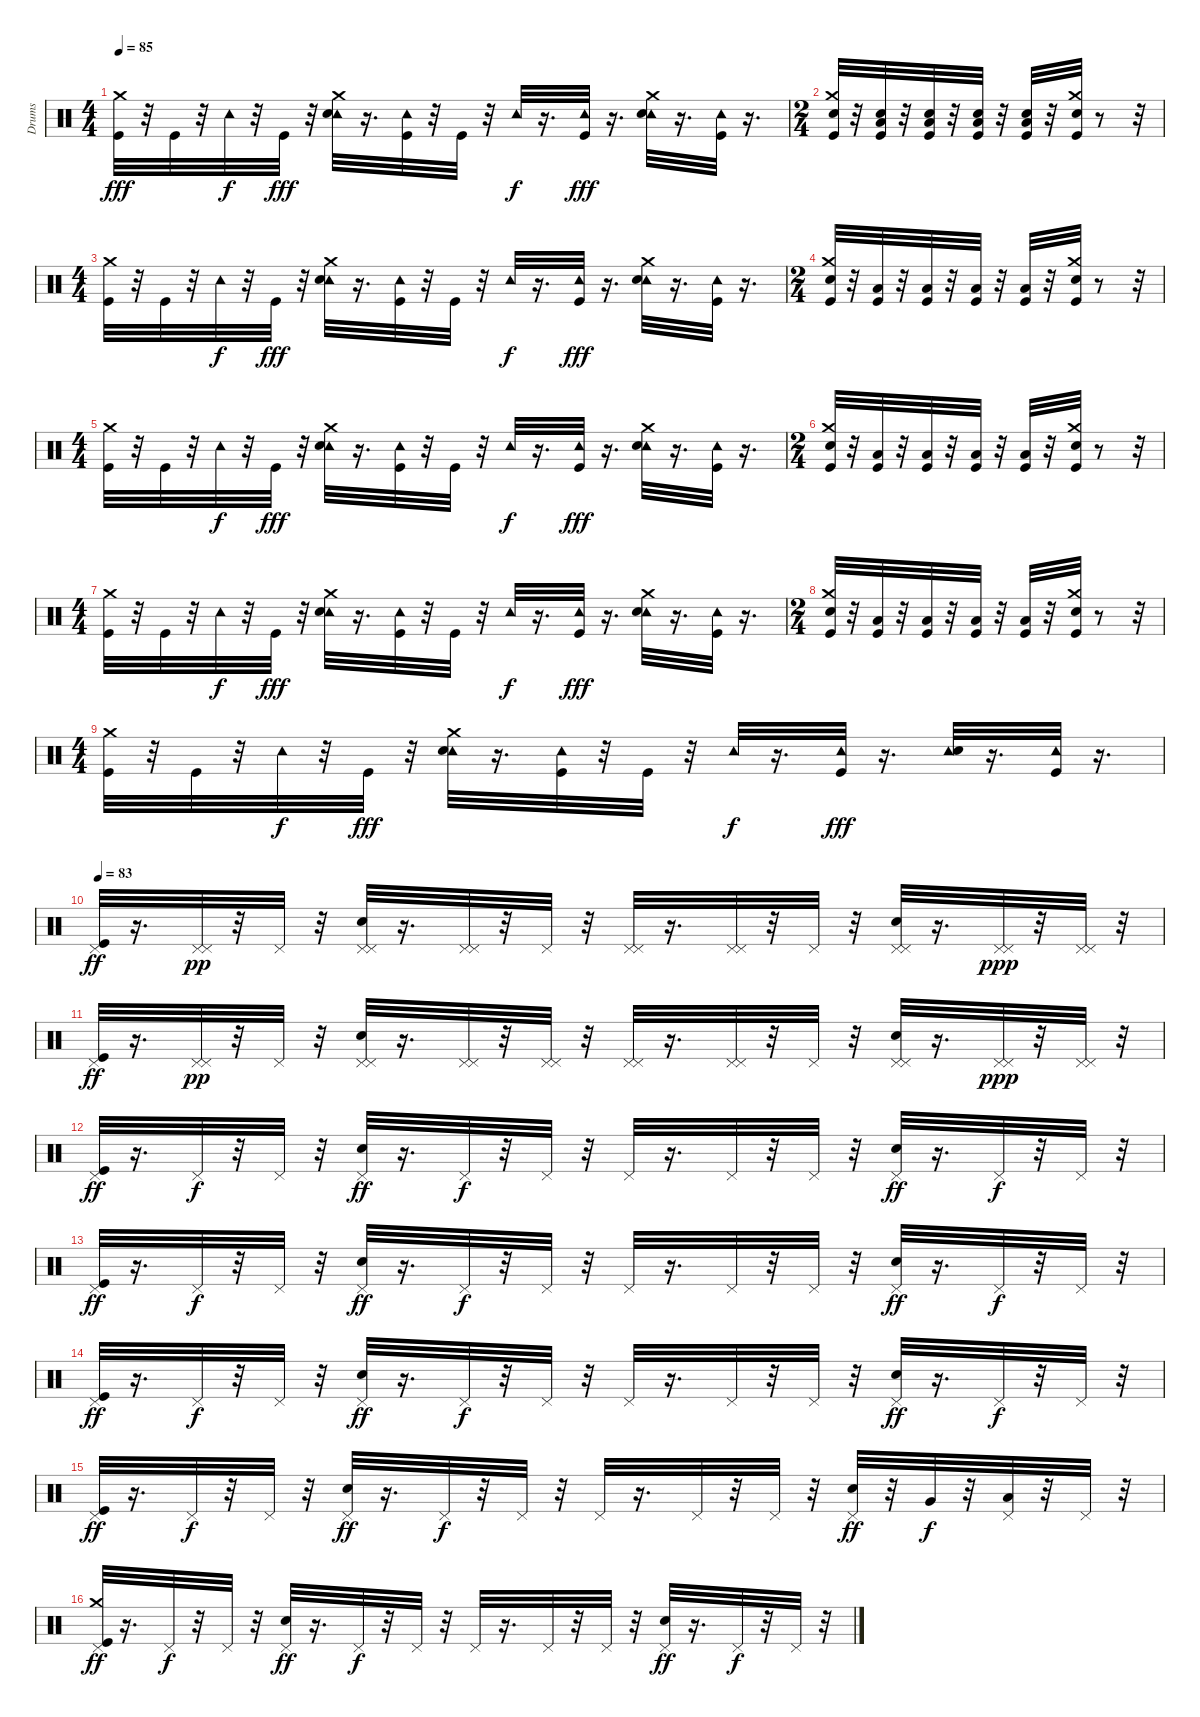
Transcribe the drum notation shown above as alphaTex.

\track ("Drums" "Drums") {instrument percussion}
\staff {score}
\articulation defaults
\ts (4 4)
\tempo 85
\clef neutral
\ks c
("Kick (hit)" "Crash medium (hit)").32{dy fff} r.32 "Kick (hit)".32 r.32 "Tambourine (hit)".32{dy f} r.32 "Kick (hit)".32{dy fff} r.32 ("Crash medium (hit)" "Tambourine (hit)" "Electric Snare (hit)").32 r.16{d} ("Tambourine (hit)" "Kick (hit)").32 r.32 "Kick (hit)".32 r.32 "Tambourine (hit)".32{dy f} r.16{d} ("Kick (hit)" "Tambourine (hit)").32{dy fff} r.16{d} ("Crash medium (hit)" "Tambourine (hit)" "Electric Snare (hit)").32 r.16{d} ("Kick (hit)" "Tambourine (hit)").32 r.16{d} |
\ts (2 4)
("Electric Snare (hit)" "Crash medium (hit)" "Kick (hit)").32 r.32 ("Electric Snare (hit)" "Low Floor Tom (hit)" "Kick (hit)").32 r.32 ("Electric Snare (hit)" "Low Floor Tom (hit)" "Kick (hit)").32 r.32 ("Electric Snare (hit)" "Low Floor Tom (hit)" "Kick (hit)").32 r.32 ("Electric Snare (hit)" "Low Floor Tom (hit)" "Kick (hit)").32 r.32 ("Electric Snare (hit)" "Crash medium (hit)" "Kick (hit)").32 r.8 r.32 |
\ts (4 4)
("Kick (hit)" "Crash medium (hit)").32 r.32 "Kick (hit)".32 r.32 "Tambourine (hit)".32{dy f} r.32 "Kick (hit)".32{dy fff} r.32 ("Crash medium (hit)" "Tambourine (hit)" "Electric Snare (hit)").32 r.16{d} ("Tambourine (hit)" "Kick (hit)").32 r.32 "Kick (hit)".32 r.32 "Tambourine (hit)".32{dy f} r.16{d} ("Kick (hit)" "Tambourine (hit)").32{dy fff} r.16{d} ("Crash medium (hit)" "Tambourine (hit)" "Electric Snare (hit)").32 r.16{d} ("Kick (hit)" "Tambourine (hit)").32 r.16{d} |
\ts (2 4)
("Electric Snare (hit)" "Crash medium (hit)" "Kick (hit)").32 r.32 ("Low Floor Tom (hit)" "Kick (hit)").32 r.32 ("Low Floor Tom (hit)" "Kick (hit)").32 r.32 ("Low Floor Tom (hit)" "Kick (hit)").32 r.32 ("Low Floor Tom (hit)" "Kick (hit)").32 r.32 ("Electric Snare (hit)" "Crash medium (hit)" "Kick (hit)").32 r.8 r.32 |
\ts (4 4)
("Kick (hit)" "Crash medium (hit)").32 r.32 "Kick (hit)".32 r.32 "Tambourine (hit)".32{dy f} r.32 "Kick (hit)".32{dy fff} r.32 ("Crash medium (hit)" "Tambourine (hit)" "Electric Snare (hit)").32 r.16{d} ("Tambourine (hit)" "Kick (hit)").32 r.32 "Kick (hit)".32 r.32 "Tambourine (hit)".32{dy f} r.16{d} ("Kick (hit)" "Tambourine (hit)").32{dy fff} r.16{d} ("Crash medium (hit)" "Tambourine (hit)" "Electric Snare (hit)").32 r.16{d} ("Kick (hit)" "Tambourine (hit)").32 r.16{d} |
\ts (2 4)
("Electric Snare (hit)" "Crash medium (hit)" "Kick (hit)").32 r.32 ("Low Floor Tom (hit)" "Kick (hit)").32 r.32 ("Low Floor Tom (hit)" "Kick (hit)").32 r.32 ("Low Floor Tom (hit)" "Kick (hit)").32 r.32 ("Low Floor Tom (hit)" "Kick (hit)").32 r.32 ("Electric Snare (hit)" "Crash medium (hit)" "Kick (hit)").32 r.8 r.32 |
\ts (4 4)
("Kick (hit)" "Crash medium (hit)").32 r.32 "Kick (hit)".32 r.32 "Tambourine (hit)".32{dy f} r.32 "Kick (hit)".32{dy fff} r.32 ("Crash medium (hit)" "Tambourine (hit)" "Electric Snare (hit)").32 r.16{d} ("Tambourine (hit)" "Kick (hit)").32 r.32 "Kick (hit)".32 r.32 "Tambourine (hit)".32{dy f} r.16{d} ("Kick (hit)" "Tambourine (hit)").32{dy fff} r.16{d} ("Crash medium (hit)" "Tambourine (hit)" "Electric Snare (hit)").32 r.16{d} ("Kick (hit)" "Tambourine (hit)").32 r.16{d} |
\ts (2 4)
("Electric Snare (hit)" "Crash medium (hit)" "Kick (hit)").32 r.32 ("Low Floor Tom (hit)" "Kick (hit)").32 r.32 ("Low Floor Tom (hit)" "Kick (hit)").32 r.32 ("Low Floor Tom (hit)" "Kick (hit)").32 r.32 ("Low Floor Tom (hit)" "Kick (hit)").32 r.32 ("Electric Snare (hit)" "Crash medium (hit)" "Kick (hit)").32 r.8 r.32 |
\ts (4 4)
("Kick (hit)" "Crash medium (hit)").32 r.32 "Kick (hit)".32 r.32 "Tambourine (hit)".32{dy f} r.32 "Kick (hit)".32{dy fff} r.32 ("Crash medium (hit)" "Tambourine (hit)" "Electric Snare (hit)").32 r.16{d} ("Tambourine (hit)" "Kick (hit)").32 r.32 "Kick (hit)".32 r.32 "Tambourine (hit)".32{dy f} r.16{d} ("Kick (hit)" "Tambourine (hit)").32{dy fff} r.16{d} ("Tambourine (hit)" "Electric Snare (hit)").32 r.16{d} ("Kick (hit)" "Tambourine (hit)").32 r.16{d} |
\tempo 83
("Pedal Hi-Hat (hit)" "Kick (hit)").32{dy ff volume 14} r.16{d} ("Pedal Hi-Hat (hit)" "Pedal Hi-Hat (hit)").32{dy pp} r.32 "Pedal Hi-Hat (hit)".32 r.32 ("Pedal Hi-Hat (hit)" "Electric Snare (hit)" "Pedal Hi-Hat (hit)").32 r.16{d} ("Pedal Hi-Hat (hit)" "Pedal Hi-Hat (hit)").32 r.32 "Pedal Hi-Hat (hit)".32 r.32 ("Pedal Hi-Hat (hit)" "Pedal Hi-Hat (hit)").32 r.16{d} ("Pedal Hi-Hat (hit)" "Pedal Hi-Hat (hit)").32 r.32 "Pedal Hi-Hat (hit)".32 r.32 ("Pedal Hi-Hat (hit)" "Electric Snare (hit)" "Pedal Hi-Hat (hit)").32 r.16{d} ("Pedal Hi-Hat (hit)" "Pedal Hi-Hat (hit)").32{dy ppp} r.32 ("Pedal Hi-Hat (hit)" "Pedal Hi-Hat (hit)").32 r.32 |
("Kick (hit)" "Pedal Hi-Hat (hit)").32{dy ff} r.16{d} ("Pedal Hi-Hat (hit)" "Pedal Hi-Hat (hit)").32{dy pp} r.32 "Pedal Hi-Hat (hit)".32 r.32 ("Pedal Hi-Hat (hit)" "Electric Snare (hit)" "Pedal Hi-Hat (hit)").32 r.16{d} ("Pedal Hi-Hat (hit)" "Pedal Hi-Hat (hit)").32 r.32 ("Pedal Hi-Hat (hit)" "Pedal Hi-Hat (hit)").32 r.32 ("Pedal Hi-Hat (hit)" "Pedal Hi-Hat (hit)").32 r.16{d} ("Pedal Hi-Hat (hit)" "Pedal Hi-Hat (hit)").32 r.32 "Pedal Hi-Hat (hit)".32 r.32 ("Pedal Hi-Hat (hit)" "Electric Snare (hit)" "Pedal Hi-Hat (hit)").32 r.16{d} ("Pedal Hi-Hat (hit)" "Pedal Hi-Hat (hit)").32{dy ppp} r.32 ("Pedal Hi-Hat (hit)" "Pedal Hi-Hat (hit)").32 r.32 |
("Pedal Hi-Hat (hit)" "Kick (hit)").32{dy ff} r.16{d} "Pedal Hi-Hat (hit)".32{dy f} r.32 "Pedal Hi-Hat (hit)".32 r.32 ("Pedal Hi-Hat (hit)" "Electric Snare (hit)").32{dy ff} r.16{d} "Pedal Hi-Hat (hit)".32{dy f} r.32 "Pedal Hi-Hat (hit)".32 r.32 "Pedal Hi-Hat (hit)".32 r.16{d} "Pedal Hi-Hat (hit)".32 r.32 "Pedal Hi-Hat (hit)".32 r.32 ("Pedal Hi-Hat (hit)" "Electric Snare (hit)").32{dy ff} r.16{d} "Pedal Hi-Hat (hit)".32{dy f} r.32 "Pedal Hi-Hat (hit)".32 r.32 |
("Pedal Hi-Hat (hit)" "Kick (hit)").32{dy ff} r.16{d} "Pedal Hi-Hat (hit)".32{dy f} r.32 "Pedal Hi-Hat (hit)".32 r.32 ("Pedal Hi-Hat (hit)" "Electric Snare (hit)").32{dy ff} r.16{d} "Pedal Hi-Hat (hit)".32{dy f} r.32 "Pedal Hi-Hat (hit)".32 r.32 "Pedal Hi-Hat (hit)".32 r.16{d} "Pedal Hi-Hat (hit)".32 r.32 "Pedal Hi-Hat (hit)".32 r.32 ("Pedal Hi-Hat (hit)" "Electric Snare (hit)").32{dy ff} r.16{d} "Pedal Hi-Hat (hit)".32{dy f} r.32 "Pedal Hi-Hat (hit)".32 r.32 |
("Pedal Hi-Hat (hit)" "Kick (hit)").32{dy ff} r.16{d} "Pedal Hi-Hat (hit)".32{dy f} r.32 "Pedal Hi-Hat (hit)".32 r.32 ("Pedal Hi-Hat (hit)" "Electric Snare (hit)").32{dy ff} r.16{d} "Pedal Hi-Hat (hit)".32{dy f} r.32 "Pedal Hi-Hat (hit)".32 r.32 "Pedal Hi-Hat (hit)".32 r.16{d} "Pedal Hi-Hat (hit)".32 r.32 "Pedal Hi-Hat (hit)".32 r.32 ("Pedal Hi-Hat (hit)" "Electric Snare (hit)").32{dy ff} r.16{d} "Pedal Hi-Hat (hit)".32{dy f} r.32 "Pedal Hi-Hat (hit)".32 r.32 |
("Pedal Hi-Hat (hit)" "Kick (hit)").32{dy ff} r.16{d} "Pedal Hi-Hat (hit)".32{dy f} r.32 "Pedal Hi-Hat (hit)".32 r.32 ("Pedal Hi-Hat (hit)" "Electric Snare (hit)").32{dy ff} r.16{d} "Pedal Hi-Hat (hit)".32{dy f} r.32 "Pedal Hi-Hat (hit)".32 r.32 "Pedal Hi-Hat (hit)".32 r.16{d} "Pedal Hi-Hat (hit)".32 r.32 "Pedal Hi-Hat (hit)".32 r.32 ("Pedal Hi-Hat (hit)" "Electric Snare (hit)").32{dy ff} r.32 "Very Low Tom (hit)".32{dy f} r.32 ("Low Floor Tom (hit)" "Pedal Hi-Hat (hit)").32 r.32 "Pedal Hi-Hat (hit)".32 r.32 |
("Crash medium (hit)" "Pedal Hi-Hat (hit)" "Kick (hit)").32{dy ff} r.16{d} "Pedal Hi-Hat (hit)".32{dy f} r.32 "Pedal Hi-Hat (hit)".32 r.32 ("Pedal Hi-Hat (hit)" "Electric Snare (hit)").32{dy ff} r.16{d} "Pedal Hi-Hat (hit)".32{dy f} r.32 "Pedal Hi-Hat (hit)".32 r.32 "Pedal Hi-Hat (hit)".32 r.16{d} "Pedal Hi-Hat (hit)".32 r.32 "Pedal Hi-Hat (hit)".32 r.32 ("Pedal Hi-Hat (hit)" "Electric Snare (hit)").32{dy ff} r.16{d} "Pedal Hi-Hat (hit)".32{dy f} r.32 "Pedal Hi-Hat (hit)".32 r.32
